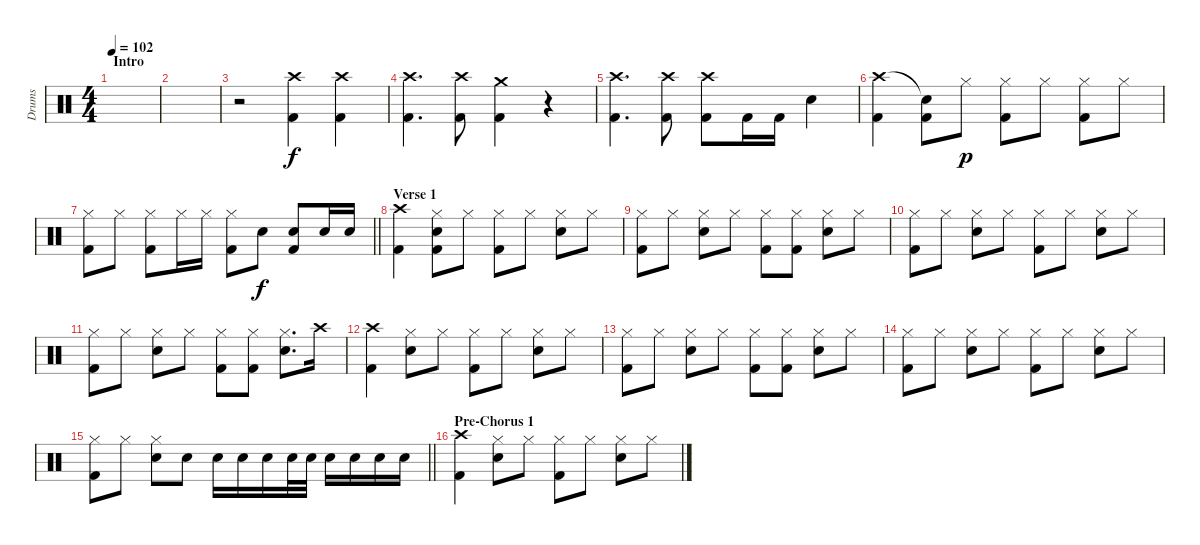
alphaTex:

\track ("Drums" "Drums") {instrument percussion}
\staff {score}
\articulation defaults
\ts (4 4)
\section ("" "Intro")
\tempo 102
\clef neutral
\ks c
|
|
r.2 ("Kick (hit) 2" "Crash high (hit)").4 ("Kick (hit) 2" "Crash high (hit)").4 |
("Kick (hit) 2" "Crash high (hit)").4{d} ("Kick (hit) 2" "Crash high (hit)").8 ("Kick (hit) 2" "Crash medium (hit)").4 r.4 |
("Kick (hit) 2" "Crash high (hit)").4{d} ("Kick (hit) 2" "Crash high (hit)").8 ("Kick (hit) 2" "Crash high (hit)").8 "Kick (hit) 2".16 "Kick (hit) 2".16 "Snare (hit) 2".4 |
("Kick (hit) 2" "Crash high (hit)").4 ("Kick (hit) 2" "Snare (hit)"{t}).8 "Hi-Hat (closed)".8{dy p} ("Kick (hit) 2" "Hi-Hat (closed)").8 "Hi-Hat (closed)".8 ("Kick (hit) 2" "Hi-Hat (closed)").8 "Hi-Hat (closed)".8 |
\barLineRight lightlight
("Kick (hit) 2" "Hi-Hat (closed)").8 "Hi-Hat (closed)".8 ("Kick (hit) 2" "Hi-Hat (closed)").8 "Hi-Hat (closed)".16 "Hi-Hat (closed)".16 ("Kick (hit) 2" "Hi-Hat (closed)").8 "Snare (hit) 2".8{dy f} ("Kick (hit) 2" "Snare (hit) 2").8 "Snare (hit) 2".16 "Snare (hit) 2".16 |
\section ("" "Verse 1")
("Kick (hit) 2" "Crash high (hit)").4 ("Kick (hit) 2" "Hi-Hat (closed)" "Snare (hit) 2").8 "Hi-Hat (closed)".8 ("Kick (hit) 2" "Hi-Hat (closed)").8 "Hi-Hat (closed)".8 ("Hi-Hat (closed)" "Snare (hit) 2").8 "Hi-Hat (closed)".8 |
("Kick (hit) 2" "Hi-Hat (closed)").8 "Hi-Hat (closed)".8 ("Hi-Hat (closed)" "Snare (hit) 2").8 "Hi-Hat (closed)".8 ("Kick (hit) 2" "Hi-Hat (closed)").8 ("Kick (hit) 2" "Hi-Hat (closed)").8 ("Hi-Hat (closed)" "Snare (hit) 2").8 "Hi-Hat (closed)".8 |
("Kick (hit) 2" "Hi-Hat (closed)").8 "Hi-Hat (closed)".8 ("Hi-Hat (closed)" "Snare (hit) 2").8 "Hi-Hat (closed)".8 ("Kick (hit) 2" "Hi-Hat (closed)").8 "Hi-Hat (closed)".8 ("Hi-Hat (closed)" "Snare (hit) 2").8 "Hi-Hat (closed)".8 |
("Kick (hit) 2" "Hi-Hat (closed)").8 "Hi-Hat (closed)".8 ("Hi-Hat (closed)" "Snare (hit) 2").8 "Hi-Hat (closed)".8 ("Kick (hit) 2" "Hi-Hat (closed)").8 ("Kick (hit) 2" "Hi-Hat (closed)").8 ("Hi-Hat (closed)" "Snare (hit) 2").8{d} "Crash high (hit)".16 |
("Kick (hit) 2" "Crash high (hit)").4 ("Hi-Hat (closed)" "Snare (hit) 2").8 "Hi-Hat (closed)".8 ("Hi-Hat (closed)" "Kick (hit) 2").8 "Hi-Hat (closed)".8 ("Hi-Hat (closed)" "Snare (hit) 2").8 "Hi-Hat (closed)".8 |
("Hi-Hat (closed)" "Kick (hit) 2").8 "Hi-Hat (closed)".8 ("Hi-Hat (closed)" "Snare (hit) 2").8 "Hi-Hat (closed)".8 ("Hi-Hat (closed)" "Kick (hit) 2").8 ("Hi-Hat (closed)" "Kick (hit) 2").8 ("Hi-Hat (closed)" "Snare (hit) 2").8 "Hi-Hat (closed)".8 |
("Hi-Hat (closed)" "Kick (hit) 2").8 "Hi-Hat (closed)".8 ("Hi-Hat (closed)" "Snare (hit) 2").8 "Hi-Hat (closed)".8 ("Hi-Hat (closed)" "Kick (hit) 2").8 "Hi-Hat (closed)".8 ("Hi-Hat (closed)" "Snare (hit) 2").8 "Hi-Hat (closed)".8 |
\barLineRight lightlight
("Hi-Hat (closed)" "Kick (hit) 2").8 "Hi-Hat (closed)".8 ("Hi-Hat (closed)" "Snare (hit) 2").8 "Snare (hit) 2".8 "Snare (hit) 2".16 "Snare (hit) 2".16 "Snare (hit) 2".16 "Snare (hit) 2".32 "Snare (hit) 2".32 "Snare (hit) 2".16 "Snare (hit) 2".16 "Snare (hit) 2".16 "Snare (hit) 2".16 |
\section ("" "Pre-Chorus 1")
("Crash high (hit)" "Kick (hit) 2").4 ("Hi-Hat (closed)" "Snare (hit) 2").8 "Hi-Hat (closed)".8 ("Hi-Hat (closed)" "Kick (hit) 2").8 "Hi-Hat (closed)".8 ("Hi-Hat (closed)" "Snare (hit) 2").8 "Hi-Hat (closed)".8
